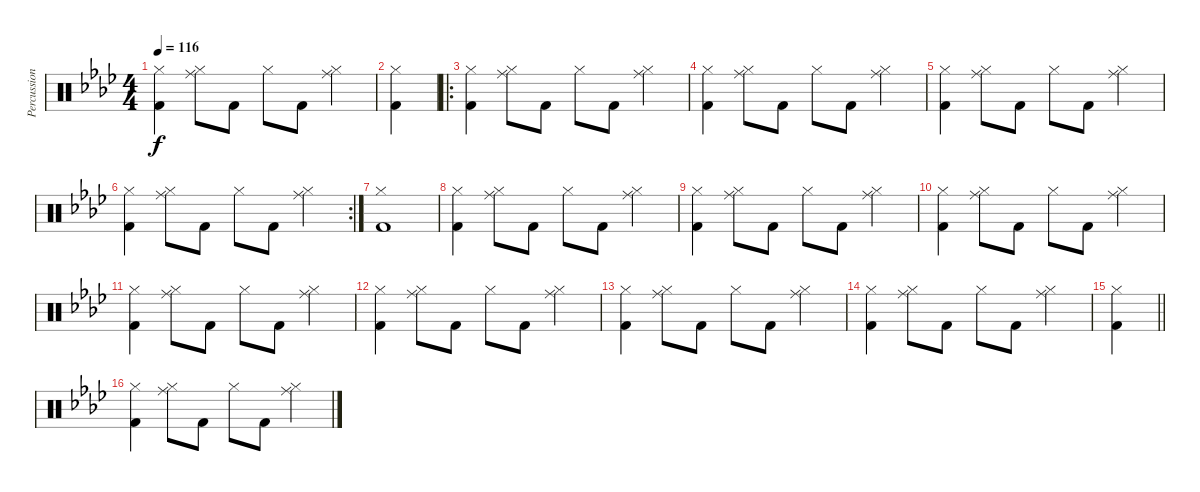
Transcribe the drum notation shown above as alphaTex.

\track ("Percussions" "Percussion") {instrument percussion}
\staff {score}
\articulation defaults
\ts (4 4)
\tempo 116
\clef neutral
\ks ab
("Kick (hit) 2" "Hi-Hat (closed)").4{dy f} ("Ride (middle)" "Hi-Hat (closed)").8 "Kick (hit) 2".8 "Hi-Hat (closed)".8 "Kick (hit) 2".8 ("Ride (middle)" "Hi-Hat (closed)").4 |
("Kick (hit) 2" "Hi-Hat (closed)").4 |
\ro
("Kick (hit) 2" "Hi-Hat (closed)").4 ("Ride (middle)" "Hi-Hat (closed)").8 "Kick (hit) 2".8 "Hi-Hat (closed)".8 "Kick (hit) 2".8 ("Ride (middle)" "Hi-Hat (closed)").4 |
("Kick (hit) 2" "Hi-Hat (closed)").4 ("Ride (middle)" "Hi-Hat (closed)").8 "Kick (hit) 2".8 "Hi-Hat (closed)".8 "Kick (hit) 2".8 ("Ride (middle)" "Hi-Hat (closed)").4 |
("Kick (hit) 2" "Hi-Hat (closed)").4 ("Ride (middle)" "Hi-Hat (closed)").8 "Kick (hit) 2".8 "Hi-Hat (closed)".8 "Kick (hit) 2".8 ("Ride (middle)" "Hi-Hat (closed)").4 |
\rc 2
("Kick (hit) 2" "Hi-Hat (closed)").4 ("Ride (middle)" "Hi-Hat (closed)").8 "Kick (hit) 2".8 "Hi-Hat (closed)".8 "Kick (hit) 2".8 ("Ride (middle)" "Hi-Hat (closed)").4 |
("Kick (hit) 2" "Hi-Hat (closed)").1 |
("Kick (hit) 2" "Hi-Hat (closed)").4 ("Ride (middle)" "Hi-Hat (closed)").8 "Kick (hit) 2".8 "Hi-Hat (closed)".8 "Kick (hit) 2".8 ("Ride (middle)" "Hi-Hat (closed)").4 |
("Kick (hit) 2" "Hi-Hat (closed)").4 ("Ride (middle)" "Hi-Hat (closed)").8 "Kick (hit) 2".8 "Hi-Hat (closed)".8 "Kick (hit) 2".8 ("Ride (middle)" "Hi-Hat (closed)").4 |
("Kick (hit) 2" "Hi-Hat (closed)").4 ("Ride (middle)" "Hi-Hat (closed)").8 "Kick (hit) 2".8 "Hi-Hat (closed)".8 "Kick (hit) 2".8 ("Ride (middle)" "Hi-Hat (closed)").4 |
("Kick (hit) 2" "Hi-Hat (closed)").4 ("Ride (middle)" "Hi-Hat (closed)").8 "Kick (hit) 2".8 "Hi-Hat (closed)".8 "Kick (hit) 2".8 ("Ride (middle)" "Hi-Hat (closed)").4 |
("Kick (hit) 2" "Hi-Hat (closed)").4 ("Ride (middle)" "Hi-Hat (closed)").8 "Kick (hit) 2".8 "Hi-Hat (closed)".8 "Kick (hit) 2".8 ("Ride (middle)" "Hi-Hat (closed)").4 |
("Kick (hit) 2" "Hi-Hat (closed)").4 ("Ride (middle)" "Hi-Hat (closed)").8 "Kick (hit) 2".8 "Hi-Hat (closed)".8 "Kick (hit) 2".8 ("Ride (middle)" "Hi-Hat (closed)").4 |
("Kick (hit) 2" "Hi-Hat (closed)").4 ("Ride (middle)" "Hi-Hat (closed)").8 "Kick (hit) 2".8 "Hi-Hat (closed)".8 "Kick (hit) 2".8 ("Ride (middle)" "Hi-Hat (closed)").4 |
\barLineRight lightlight
("Kick (hit) 2" "Hi-Hat (closed)").4 |
("Kick (hit) 2" "Hi-Hat (closed)").4 ("Ride (middle)" "Hi-Hat (closed)").8 "Kick (hit) 2".8 "Hi-Hat (closed)".8 "Kick (hit) 2".8 ("Ride (middle)" "Hi-Hat (closed)").4
